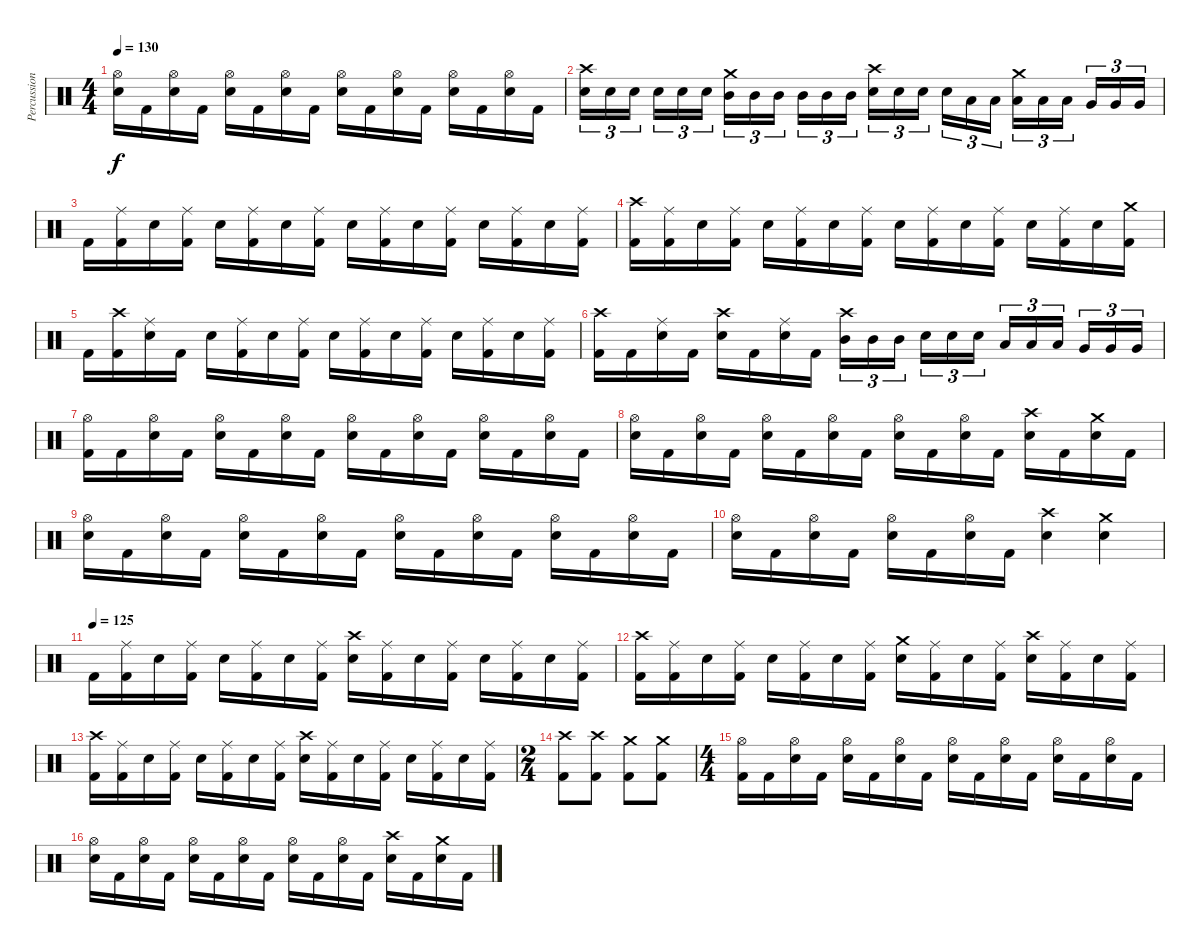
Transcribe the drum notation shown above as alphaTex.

\track ("Percussion" "Percussion") {instrument percussion}
\staff {score}
\articulation defaults
\ts (4 4)
\tempo 130
\clef neutral
\ks c
("Hi-Hat (open)" "Snare (hit) 2").16{dy f} "Kick (hit) 2".16 ("Hi-Hat (open)" "Snare (hit) 2").16 "Kick (hit) 2".16 ("Hi-Hat (open)" "Snare (hit) 2").16 "Kick (hit) 2".16 ("Hi-Hat (open)" "Snare (hit) 2").16 "Kick (hit) 2".16 ("Hi-Hat (open)" "Snare (hit) 2").16 "Kick (hit) 2".16 ("Hi-Hat (open)" "Snare (hit) 2").16 "Kick (hit) 2".16 ("Hi-Hat (open)" "Snare (hit) 2").16 "Kick (hit) 2".16 ("Hi-Hat (open)" "Snare (hit) 2").16 "Kick (hit) 2".16 |
("Crash high (hit)" "Snare (hit) 2").16{tu (3 2)} "Snare (hit) 2".16{tu (3 2)} "Snare (hit) 2".16{tu (3 2)} "Snare (hit) 2".16{tu (3 2)} "Snare (hit) 2".16{tu (3 2)} "Snare (hit) 2".16{tu (3 2)} ("Crash medium (hit)" "Mid Tom (hit)").16{tu (3 2)} "Mid Tom (hit)".16{tu (3 2)} "Mid Tom (hit)".16{tu (3 2)} "Mid Tom (hit)".16{tu (3 2)} "Mid Tom (hit)".16{tu (3 2)} "Mid Tom (hit)".16{tu (3 2)} ("Crash high (hit)" "Snare (hit) 2").16{tu (3 2)} "Snare (hit) 2".16{tu (3 2)} "Snare (hit) 2".16{tu (3 2)} "Snare (hit) 2".16{tu (3 2)} "Low Tom (hit)".16{tu (3 2)} "Low Tom (hit)".16{tu (3 2)} ("Crash medium (hit)" "Low Tom (hit)").16{tu (3 2)} "Low Tom (hit)".16{tu (3 2)} "Low Tom (hit)".16{tu (3 2)} "Very Low Tom (hit)".16{tu (3 2)} "Very Low Tom (hit)".16{tu (3 2)} "Very Low Tom (hit)".16{tu (3 2)} |
"Kick (hit) 2".16 ("Ride (middle)" "Kick (hit) 2").16 "Snare (hit) 2".16 ("Ride (middle)" "Kick (hit) 2").16 "Snare (hit) 2".16 ("Ride (middle)" "Kick (hit) 2").16 "Snare (hit) 2".16 ("Ride (middle)" "Kick (hit) 2").16 "Snare (hit) 2".16 ("Ride (middle)" "Kick (hit) 2").16 "Snare (hit) 2".16 ("Ride (middle)" "Kick (hit) 2").16 "Snare (hit) 2".16 ("Ride (middle)" "Kick (hit) 2").16 "Snare (hit) 2".16 ("Ride (middle)" "Kick (hit) 2").16 |
("Crash high (hit)" "Kick (hit) 2").16 ("Ride (middle)" "Kick (hit) 2").16 "Snare (hit) 2".16 ("Ride (middle)" "Kick (hit) 2").16 "Snare (hit) 2".16 ("Ride (middle)" "Kick (hit) 2").16 "Snare (hit) 2".16 ("Ride (middle)" "Kick (hit) 2").16 "Snare (hit) 2".16 ("Ride (middle)" "Kick (hit) 2").16 "Snare (hit) 2".16 ("Ride (middle)" "Kick (hit) 2").16 "Snare (hit) 2".16 ("Ride (middle)" "Kick (hit) 2").16 "Snare (hit) 2".16 ("Crash medium (hit)" "Kick (hit) 2").16 |
"Kick (hit) 2".16 ("Crash high (hit)" "Kick (hit) 2").16 ("Ride (middle)" "Snare (hit) 2").16 "Kick (hit) 2".16 "Snare (hit) 2".16 ("Ride (middle)" "Kick (hit) 2").16 "Snare (hit) 2".16 ("Ride (middle)" "Kick (hit) 2").16 "Snare (hit) 2".16 ("Ride (middle)" "Kick (hit) 2").16 "Snare (hit) 2".16 ("Ride (middle)" "Kick (hit) 2").16 "Snare (hit) 2".16 ("Ride (middle)" "Kick (hit) 2").16 "Snare (hit) 2".16 ("Ride (middle)" "Kick (hit) 2").16 |
("Crash high (hit)" "Kick (hit) 2").16 "Kick (hit) 2".16 ("Ride (middle)" "Snare (hit) 2").16 "Kick (hit) 2".16 ("Crash high (hit)" "Snare (hit) 2").16 "Kick (hit) 2".16 ("Ride (middle)" "Snare (hit) 2").16 "Kick (hit) 2".16 ("Crash high (hit)" "Mid Tom (hit)").16{tu (3 2)} "Mid Tom (hit)".16{tu (3 2)} "Mid Tom (hit)".16{tu (3 2)} "Snare (hit) 2".16{tu (3 2)} "Snare (hit) 2".16{tu (3 2)} "Snare (hit) 2".16{tu (3 2)} "Low Tom (hit)".16{tu (3 2)} "Low Tom (hit)".16{tu (3 2)} "Low Tom (hit)".16{tu (3 2)} "Very Low Tom (hit)".16{tu (3 2)} "Very Low Tom (hit)".16{tu (3 2)} "Very Low Tom (hit)".16{tu (3 2)} |
("Hi-Hat (open)" "Kick (hit) 2").16 "Kick (hit) 2".16 ("Hi-Hat (open)" "Snare (hit) 2").16 "Kick (hit) 2".16 ("Hi-Hat (open)" "Snare (hit) 2").16 "Kick (hit) 2".16 ("Hi-Hat (open)" "Snare (hit) 2").16 "Kick (hit) 2".16 ("Hi-Hat (open)" "Snare (hit) 2").16 "Kick (hit) 2".16 ("Hi-Hat (open)" "Snare (hit) 2").16 "Kick (hit) 2".16 ("Hi-Hat (open)" "Snare (hit) 2").16 "Kick (hit) 2".16 ("Hi-Hat (open)" "Snare (hit) 2").16 "Kick (hit) 2".16 |
("Hi-Hat (open)" "Snare (hit) 2").16 "Kick (hit) 2".16 ("Hi-Hat (open)" "Snare (hit) 2").16 "Kick (hit) 2".16 ("Hi-Hat (open)" "Snare (hit) 2").16 "Kick (hit) 2".16 ("Hi-Hat (open)" "Snare (hit) 2").16 "Kick (hit) 2".16 ("Hi-Hat (open)" "Snare (hit) 2").16 "Kick (hit) 2".16 ("Hi-Hat (open)" "Snare (hit) 2").16 "Kick (hit) 2".16 ("Crash high (hit)" "Snare (hit) 2").16 "Kick (hit) 2".16 ("Crash medium (hit)" "Snare (hit) 2").16 "Kick (hit) 2".16 |
("Hi-Hat (open)" "Snare (hit) 2").16 "Kick (hit) 2".16 ("Hi-Hat (open)" "Snare (hit) 2").16 "Kick (hit) 2".16 ("Hi-Hat (open)" "Snare (hit) 2").16 "Kick (hit) 2".16 ("Hi-Hat (open)" "Snare (hit) 2").16 "Kick (hit) 2".16 ("Hi-Hat (open)" "Snare (hit) 2").16 "Kick (hit) 2".16 ("Hi-Hat (open)" "Snare (hit) 2").16 "Kick (hit) 2".16 ("Hi-Hat (open)" "Snare (hit) 2").16 "Kick (hit) 2".16 ("Hi-Hat (open)" "Snare (hit) 2").16 "Kick (hit) 2".16 |
("Hi-Hat (open)" "Snare (hit) 2").16 "Kick (hit) 2".16 ("Hi-Hat (open)" "Snare (hit) 2").16 "Kick (hit) 2".16 ("Hi-Hat (open)" "Snare (hit) 2").16 "Kick (hit) 2".16 ("Hi-Hat (open)" "Snare (hit) 2").16 "Kick (hit) 2".16 ("Crash high (hit)" "Snare (hit) 2").4 ("Crash medium (hit)" "Snare (hit) 2").4 |
\tempo (125)
"Kick (hit) 2".16 ("Ride (middle)" "Kick (hit) 2").16 "Snare (hit) 2".16 ("Ride (middle)" "Kick (hit) 2").16 "Snare (hit) 2".16 ("Ride (middle)" "Kick (hit) 2").16 "Snare (hit) 2".16 ("Ride (middle)" "Kick (hit) 2").16 ("Crash high (hit)" "Snare (hit) 2").16 ("Ride (middle)" "Kick (hit) 2").16 "Snare (hit) 2".16 ("Ride (middle)" "Kick (hit) 2").16 "Snare (hit) 2".16 ("Ride (middle)" "Kick (hit) 2").16 "Snare (hit) 2".16 ("Ride (middle)" "Kick (hit) 2").16 |
("Crash high (hit)" "Kick (hit) 2").16 ("Ride (middle)" "Kick (hit) 2").16 "Snare (hit) 2".16 ("Ride (middle)" "Kick (hit) 2").16 "Snare (hit) 2".16 ("Ride (middle)" "Kick (hit) 2").16 "Snare (hit) 2".16 ("Ride (middle)" "Kick (hit) 2").16 ("Crash medium (hit)" "Snare (hit) 2").16 ("Ride (middle)" "Kick (hit) 2").16 "Snare (hit) 2".16 ("Ride (middle)" "Kick (hit) 2").16 ("Crash high (hit)" "Snare (hit) 2").16 ("Ride (middle)" "Kick (hit) 2").16 "Snare (hit) 2".16 ("Ride (middle)" "Kick (hit) 2").16 |
("Crash high (hit)" "Kick (hit) 2").16 ("Ride (middle)" "Kick (hit) 2").16 "Snare (hit) 2".16 ("Ride (middle)" "Kick (hit) 2").16 "Snare (hit) 2".16 ("Ride (middle)" "Kick (hit) 2").16 "Snare (hit) 2".16 ("Ride (middle)" "Kick (hit) 2").16 ("Crash high (hit)" "Snare (hit) 2").16 ("Ride (middle)" "Kick (hit) 2").16 "Snare (hit) 2".16 ("Ride (middle)" "Kick (hit) 2").16 "Snare (hit) 2".16 ("Ride (middle)" "Kick (hit) 2").16 "Snare (hit) 2".16 ("Ride (middle)" "Kick (hit) 2").16 |
\ts (2 4)
("Crash high (hit)" "Kick (hit) 2").8 ("Crash high (hit)" "Kick (hit) 2").8 ("Crash medium (hit)" "Kick (hit) 2").8 ("Crash medium (hit)" "Kick (hit) 2").8 |
\ts (4 4)
("Hi-Hat (open)" "Kick (hit) 2").16 "Kick (hit) 2".16 ("Hi-Hat (open)" "Snare (hit) 2").16 "Kick (hit) 2".16 ("Hi-Hat (open)" "Snare (hit) 2").16 "Kick (hit) 2".16 ("Hi-Hat (open)" "Snare (hit) 2").16 "Kick (hit) 2".16 ("Hi-Hat (open)" "Snare (hit) 2").16 "Kick (hit) 2".16 ("Hi-Hat (open)" "Snare (hit) 2").16 "Kick (hit) 2".16 ("Hi-Hat (open)" "Snare (hit) 2").16 "Kick (hit) 2".16 ("Hi-Hat (open)" "Snare (hit) 2").16 "Kick (hit) 2".16 |
("Hi-Hat (open)" "Snare (hit) 2").16 "Kick (hit) 2".16 ("Hi-Hat (open)" "Snare (hit) 2").16 "Kick (hit) 2".16 ("Hi-Hat (open)" "Snare (hit) 2").16 "Kick (hit) 2".16 ("Hi-Hat (open)" "Snare (hit) 2").16 "Kick (hit) 2".16 ("Hi-Hat (open)" "Snare (hit) 2").16 "Kick (hit) 2".16 ("Hi-Hat (open)" "Snare (hit) 2").16 "Kick (hit) 2".16 ("Crash high (hit)" "Snare (hit) 2").16 "Kick (hit) 2".16 ("Crash medium (hit)" "Snare (hit) 2").16 "Kick (hit) 2".16
